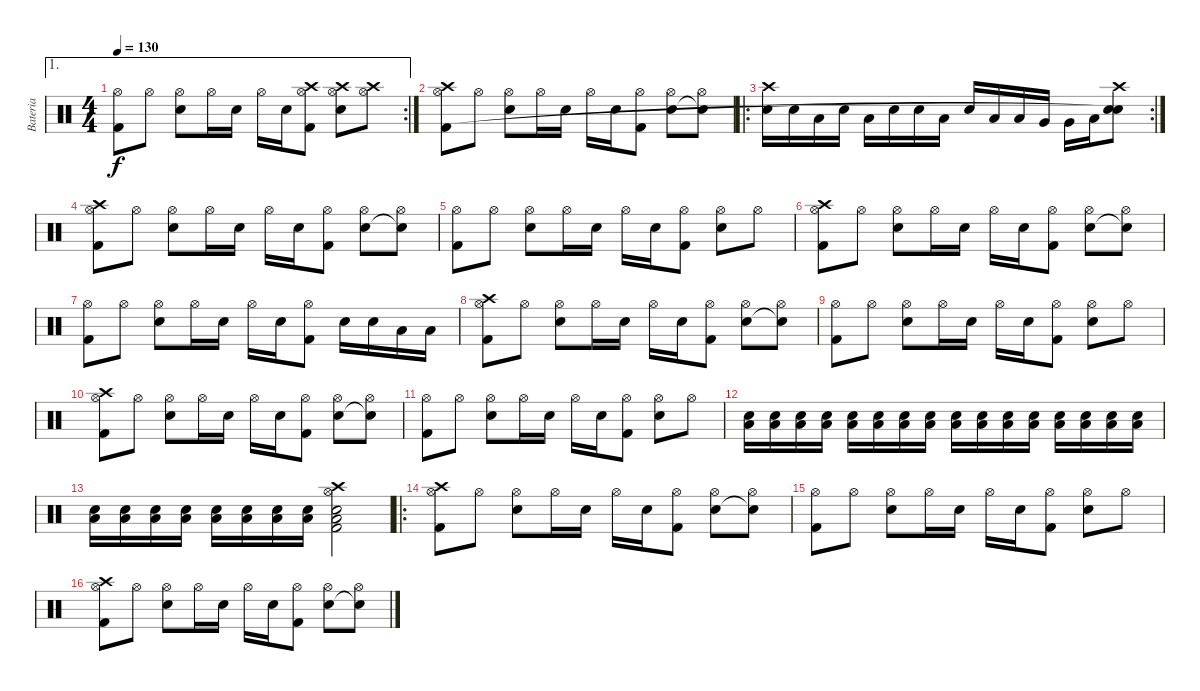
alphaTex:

\track ("Bateria" "Bateria") {instrument percussion}
\staff {score}
\articulation defaults
\ae 1
\rc 2
\ts (4 4)
\tempo 130
\clef neutral
\ks c
("Hi-Hat (open)" "Kick (hit) 2").8{dy f} "Hi-Hat (open)".8 ("Hi-Hat (open)" "Snare (hit) 2").8 "Hi-Hat (open)".16 "Snare (hit) 2".16 "Hi-Hat (open)".16 "Snare (hit) 2".16 ("Hi-Hat (open)" "Crash high (hit)" "Kick (hit) 2").8 ("Hi-Hat (open)" "Crash high (hit)" "Snare (hit) 2").8 ("Hi-Hat (open)" "Crash high (hit)").8 |
("Hi-Hat (open)" "Crash high (hit)" "Kick (hit) 2").8 "Hi-Hat (open)".8 ("Hi-Hat (open)" "Snare (hit) 2").8 "Hi-Hat (open)".16 "Snare (hit) 2".16 "Hi-Hat (open)".16 "Snare (hit) 2".16 ("Hi-Hat (open)" "Kick (hit) 2").8 ("Hi-Hat (open)" "Snare (hit) 2").8 ("Hi-Hat (open)" "Snare (hit)"{t}).8 |
\ro
\rc 2
("Snare (hit) 2" "Crash high (hit)").16 "Snare (hit) 2".16 "Low Tom (hit)".16 "Snare (hit) 2".16 "Low Tom (hit)".16 "Snare (hit) 2".16 "Snare (hit) 2".16 "Low Tom (hit)".16 "Snare (hit) 2".16 "Low Tom (hit)".16 "Low Tom (hit)".16 "Very Low Tom (hit)".16 "Very Low Tom (hit)".16 "Low Floor Tom (hit)".16 ("Crash high (hit)" "Snare (hit) 2" "Snare (hit)"{t}).8 |
("Hi-Hat (open)" "Crash high (hit)" "Kick (hit) 2").8 "Hi-Hat (open)".8 ("Hi-Hat (open)" "Snare (hit) 2").8 "Hi-Hat (open)".16 "Snare (hit) 2".16 "Hi-Hat (open)".16 "Snare (hit) 2".16 ("Hi-Hat (open)" "Kick (hit) 2").8 ("Hi-Hat (open)" "Snare (hit) 2").8 ("Hi-Hat (open)" "Snare (hit)"{t}).8 |
("Hi-Hat (open)" "Kick (hit) 2").8 "Hi-Hat (open)".8 ("Hi-Hat (open)" "Snare (hit) 2").8 "Hi-Hat (open)".16 "Snare (hit) 2".16 "Hi-Hat (open)".16 "Snare (hit) 2".16 ("Hi-Hat (open)" "Kick (hit) 2").8 ("Hi-Hat (open)" "Snare (hit) 2").8 "Hi-Hat (open)".8 |
("Hi-Hat (open)" "Crash high (hit)" "Kick (hit) 2").8 "Hi-Hat (open)".8 ("Hi-Hat (open)" "Snare (hit) 2").8 "Hi-Hat (open)".16 "Snare (hit) 2".16 "Hi-Hat (open)".16 "Snare (hit) 2".16 ("Hi-Hat (open)" "Kick (hit) 2").8 ("Hi-Hat (open)" "Snare (hit) 2").8 ("Hi-Hat (open)" "Snare (hit)"{t}).8 |
("Hi-Hat (open)" "Kick (hit) 2").8 "Hi-Hat (open)".8 ("Hi-Hat (open)" "Snare (hit) 2").8 "Hi-Hat (open)".16 "Snare (hit) 2".16 "Hi-Hat (open)".16 "Snare (hit) 2".16 ("Hi-Hat (open)" "Kick (hit) 2").8 "Snare (hit) 2".16 "Snare (hit) 2".16 "Low Tom (hit)".16 "Low Tom (hit)".16 |
("Hi-Hat (open)" "Crash high (hit)" "Kick (hit) 2").8 "Hi-Hat (open)".8 ("Hi-Hat (open)" "Snare (hit) 2").8 "Hi-Hat (open)".16 "Snare (hit) 2".16 "Hi-Hat (open)".16 "Snare (hit) 2".16 ("Hi-Hat (open)" "Kick (hit) 2").8 ("Hi-Hat (open)" "Snare (hit) 2").8 ("Hi-Hat (open)" "Snare (hit)"{t}).8 |
("Hi-Hat (open)" "Kick (hit) 2").8 "Hi-Hat (open)".8 ("Hi-Hat (open)" "Snare (hit) 2").8 "Hi-Hat (open)".16 "Snare (hit) 2".16 "Hi-Hat (open)".16 "Snare (hit) 2".16 ("Hi-Hat (open)" "Kick (hit) 2").8 ("Hi-Hat (open)" "Snare (hit) 2").8 "Hi-Hat (open)".8 |
("Hi-Hat (open)" "Crash high (hit)" "Kick (hit) 2").8 "Hi-Hat (open)".8 ("Hi-Hat (open)" "Snare (hit) 2").8 "Hi-Hat (open)".16 "Snare (hit) 2".16 "Hi-Hat (open)".16 "Snare (hit) 2".16 ("Hi-Hat (open)" "Kick (hit) 2").8 ("Hi-Hat (open)" "Snare (hit) 2").8 ("Hi-Hat (open)" "Snare (hit)"{t}).8 |
("Hi-Hat (open)" "Kick (hit) 2").8 "Hi-Hat (open)".8 ("Hi-Hat (open)" "Snare (hit) 2").8 "Hi-Hat (open)".16 "Snare (hit) 2".16 "Hi-Hat (open)".16 "Snare (hit) 2".16 ("Hi-Hat (open)" "Kick (hit) 2").8 ("Hi-Hat (open)" "Snare (hit) 2").8 "Hi-Hat (open)".8 |
("Low Floor Tom (hit)" "Snare (hit) 2").16{volume 4} ("Low Floor Tom (hit)" "Snare (hit) 2").16 ("Low Floor Tom (hit)" "Snare (hit) 2").16{volume 5} ("Low Floor Tom (hit)" "Snare (hit) 2").16 ("Low Floor Tom (hit)" "Snare (hit) 2").16{volume 6} ("Low Floor Tom (hit)" "Snare (hit) 2").16 ("Low Floor Tom (hit)" "Snare (hit) 2").16{volume 7} ("Low Floor Tom (hit)" "Snare (hit) 2").16 ("Low Floor Tom (hit)" "Snare (hit) 2").16{volume 8} ("Low Floor Tom (hit)" "Snare (hit) 2").16 ("Low Floor Tom (hit)" "Snare (hit) 2").16{volume 9} ("Low Floor Tom (hit)" "Snare (hit) 2").16 ("Low Floor Tom (hit)" "Snare (hit) 2").16{volume 10} ("Low Floor Tom (hit)" "Snare (hit) 2").16 ("Low Floor Tom (hit)" "Snare (hit) 2").16{volume 11} ("Low Floor Tom (hit)" "Snare (hit) 2").16 |
("Low Floor Tom (hit)" "Snare (hit) 2").16{volume 12} ("Low Floor Tom (hit)" "Snare (hit) 2").16 ("Low Floor Tom (hit)" "Snare (hit) 2").16{volume 13} ("Low Floor Tom (hit)" "Snare (hit) 2").16 ("Low Floor Tom (hit)" "Snare (hit) 2").16{volume 14} ("Low Floor Tom (hit)" "Snare (hit) 2").16 ("Low Floor Tom (hit)" "Snare (hit) 2").16 ("Low Floor Tom (hit)" "Snare (hit) 2").16 ("Hi-Hat (open)" "Crash high (hit)" "Low Floor Tom (hit)" "Snare (hit) 2" "Kick (hit) 2").2 |
\ro
("Hi-Hat (open)" "Crash high (hit)" "Kick (hit) 2").8 "Hi-Hat (open)".8 ("Hi-Hat (open)" "Snare (hit) 2").8 "Hi-Hat (open)".16 "Snare (hit) 2".16 "Hi-Hat (open)".16 "Snare (hit) 2".16 ("Hi-Hat (open)" "Kick (hit) 2").8 ("Hi-Hat (open)" "Snare (hit) 2").8 ("Hi-Hat (open)" "Snare (hit)"{t}).8 |
("Hi-Hat (open)" "Kick (hit) 2").8 "Hi-Hat (open)".8 ("Hi-Hat (open)" "Snare (hit) 2").8 "Hi-Hat (open)".16 "Snare (hit) 2".16 "Hi-Hat (open)".16 "Snare (hit) 2".16 ("Hi-Hat (open)" "Kick (hit) 2").8 ("Hi-Hat (open)" "Snare (hit) 2").8 "Hi-Hat (open)".8 |
("Hi-Hat (open)" "Crash high (hit)" "Kick (hit) 2").8 "Hi-Hat (open)".8 ("Hi-Hat (open)" "Snare (hit) 2").8 "Hi-Hat (open)".16 "Snare (hit) 2".16 "Hi-Hat (open)".16 "Snare (hit) 2".16 ("Hi-Hat (open)" "Kick (hit) 2").8 ("Hi-Hat (open)" "Snare (hit) 2").8 ("Hi-Hat (open)" "Snare (hit)"{t}).8
